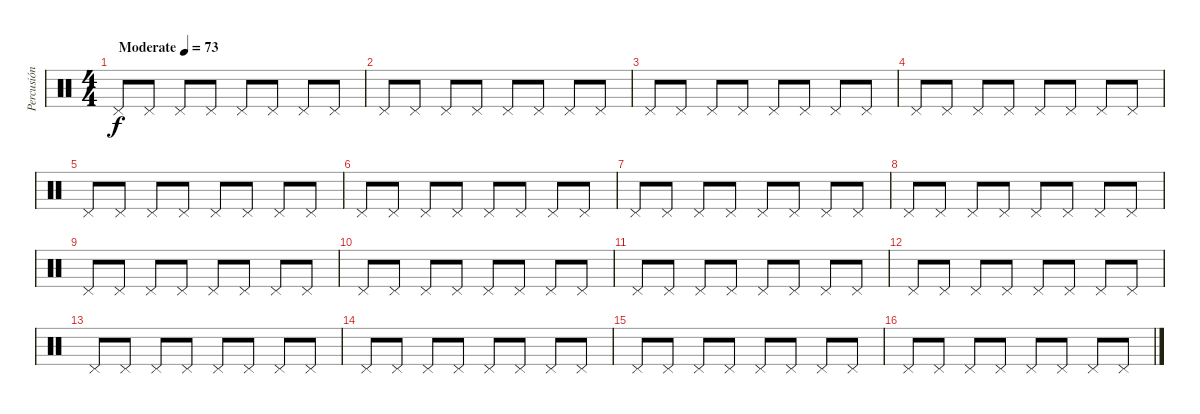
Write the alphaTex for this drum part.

\track ("Percusión" "Percusión") {instrument percussion}
\staff {score}
\articulation defaults
\ts (4 4)
\tempo (73 "Moderate")
\clef neutral
\ks c "Pedal Hi-Hat (hit)".8{dy f} "Pedal Hi-Hat (hit)".8 "Pedal Hi-Hat (hit)".8 "Pedal Hi-Hat (hit)".8 "Pedal Hi-Hat (hit)".8 "Pedal Hi-Hat (hit)".8 "Pedal Hi-Hat (hit)".8 "Pedal Hi-Hat (hit)".8
|
"Pedal Hi-Hat (hit)".8 "Pedal Hi-Hat (hit)".8 "Pedal Hi-Hat (hit)".8 "Pedal Hi-Hat (hit)".8 "Pedal Hi-Hat (hit)".8 "Pedal Hi-Hat (hit)".8 "Pedal Hi-Hat (hit)".8 "Pedal Hi-Hat (hit)".8 |
"Pedal Hi-Hat (hit)".8 "Pedal Hi-Hat (hit)".8 "Pedal Hi-Hat (hit)".8 "Pedal Hi-Hat (hit)".8 "Pedal Hi-Hat (hit)".8 "Pedal Hi-Hat (hit)".8 "Pedal Hi-Hat (hit)".8 "Pedal Hi-Hat (hit)".8 |
"Pedal Hi-Hat (hit)".8 "Pedal Hi-Hat (hit)".8 "Pedal Hi-Hat (hit)".8 "Pedal Hi-Hat (hit)".8 "Pedal Hi-Hat (hit)".8 "Pedal Hi-Hat (hit)".8 "Pedal Hi-Hat (hit)".8 "Pedal Hi-Hat (hit)".8 |
"Pedal Hi-Hat (hit)".8 "Pedal Hi-Hat (hit)".8 "Pedal Hi-Hat (hit)".8 "Pedal Hi-Hat (hit)".8 "Pedal Hi-Hat (hit)".8 "Pedal Hi-Hat (hit)".8 "Pedal Hi-Hat (hit)".8 "Pedal Hi-Hat (hit)".8 |
"Pedal Hi-Hat (hit)".8 "Pedal Hi-Hat (hit)".8 "Pedal Hi-Hat (hit)".8 "Pedal Hi-Hat (hit)".8 "Pedal Hi-Hat (hit)".8 "Pedal Hi-Hat (hit)".8 "Pedal Hi-Hat (hit)".8 "Pedal Hi-Hat (hit)".8 |
"Pedal Hi-Hat (hit)".8 "Pedal Hi-Hat (hit)".8 "Pedal Hi-Hat (hit)".8 "Pedal Hi-Hat (hit)".8 "Pedal Hi-Hat (hit)".8 "Pedal Hi-Hat (hit)".8 "Pedal Hi-Hat (hit)".8 "Pedal Hi-Hat (hit)".8 |
"Pedal Hi-Hat (hit)".8 "Pedal Hi-Hat (hit)".8 "Pedal Hi-Hat (hit)".8 "Pedal Hi-Hat (hit)".8 "Pedal Hi-Hat (hit)".8 "Pedal Hi-Hat (hit)".8 "Pedal Hi-Hat (hit)".8 "Pedal Hi-Hat (hit)".8 |
"Pedal Hi-Hat (hit)".8 "Pedal Hi-Hat (hit)".8 "Pedal Hi-Hat (hit)".8 "Pedal Hi-Hat (hit)".8 "Pedal Hi-Hat (hit)".8 "Pedal Hi-Hat (hit)".8 "Pedal Hi-Hat (hit)".8 "Pedal Hi-Hat (hit)".8 |
"Pedal Hi-Hat (hit)".8 "Pedal Hi-Hat (hit)".8 "Pedal Hi-Hat (hit)".8 "Pedal Hi-Hat (hit)".8 "Pedal Hi-Hat (hit)".8 "Pedal Hi-Hat (hit)".8 "Pedal Hi-Hat (hit)".8 "Pedal Hi-Hat (hit)".8 |
"Pedal Hi-Hat (hit)".8 "Pedal Hi-Hat (hit)".8 "Pedal Hi-Hat (hit)".8 "Pedal Hi-Hat (hit)".8 "Pedal Hi-Hat (hit)".8 "Pedal Hi-Hat (hit)".8 "Pedal Hi-Hat (hit)".8 "Pedal Hi-Hat (hit)".8 |
"Pedal Hi-Hat (hit)".8 "Pedal Hi-Hat (hit)".8 "Pedal Hi-Hat (hit)".8 "Pedal Hi-Hat (hit)".8 "Pedal Hi-Hat (hit)".8 "Pedal Hi-Hat (hit)".8 "Pedal Hi-Hat (hit)".8 "Pedal Hi-Hat (hit)".8 |
"Pedal Hi-Hat (hit)".8 "Pedal Hi-Hat (hit)".8 "Pedal Hi-Hat (hit)".8 "Pedal Hi-Hat (hit)".8 "Pedal Hi-Hat (hit)".8 "Pedal Hi-Hat (hit)".8 "Pedal Hi-Hat (hit)".8 "Pedal Hi-Hat (hit)".8 |
"Pedal Hi-Hat (hit)".8 "Pedal Hi-Hat (hit)".8 "Pedal Hi-Hat (hit)".8 "Pedal Hi-Hat (hit)".8 "Pedal Hi-Hat (hit)".8 "Pedal Hi-Hat (hit)".8 "Pedal Hi-Hat (hit)".8 "Pedal Hi-Hat (hit)".8 |
"Pedal Hi-Hat (hit)".8 "Pedal Hi-Hat (hit)".8 "Pedal Hi-Hat (hit)".8 "Pedal Hi-Hat (hit)".8 "Pedal Hi-Hat (hit)".8 "Pedal Hi-Hat (hit)".8 "Pedal Hi-Hat (hit)".8 "Pedal Hi-Hat (hit)".8 |
"Pedal Hi-Hat (hit)".8 "Pedal Hi-Hat (hit)".8 "Pedal Hi-Hat (hit)".8 "Pedal Hi-Hat (hit)".8 "Pedal Hi-Hat (hit)".8 "Pedal Hi-Hat (hit)".8 "Pedal Hi-Hat (hit)".8 "Pedal Hi-Hat (hit)".8
